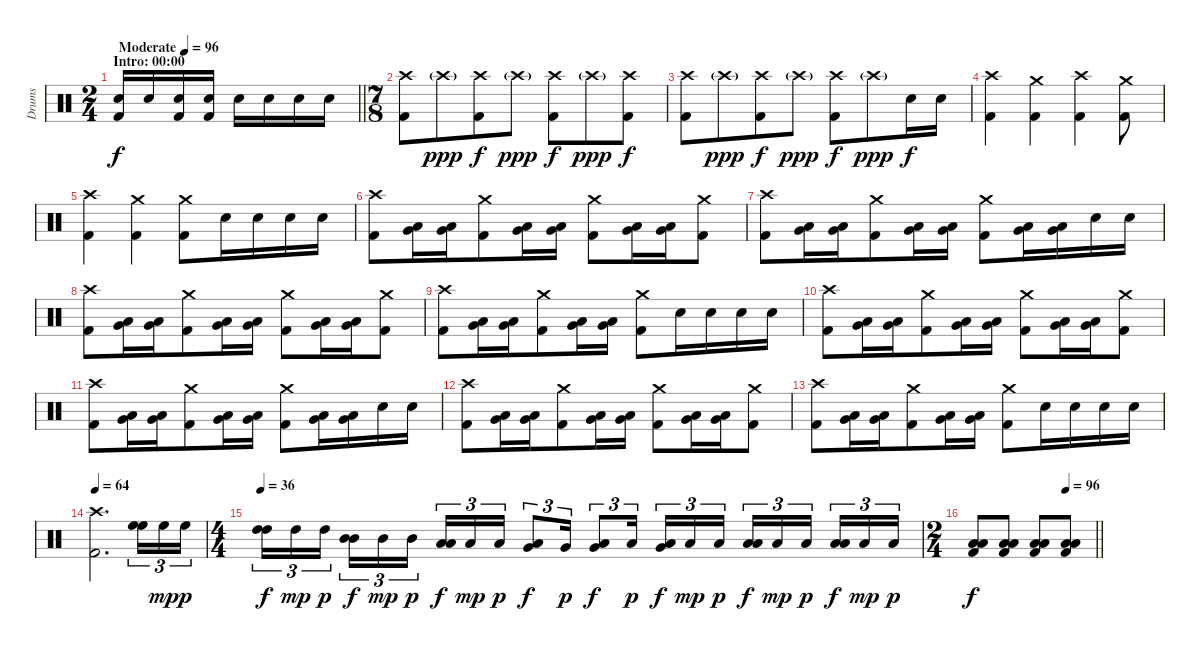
\track ("Drums" "Drums") {instrument percussion}
\staff {score}
\articulation defaults
\ts (2 4)
\section ("" "Intro: 00:00")
\tempo (96 "Moderate")
\clef neutral
\barLineRight lightlight
\ks c
("Electric Snare (hit)" "Kick (hit) 2").16{dy f} "Electric Snare (hit)".16 ("Electric Snare (hit)" "Kick (hit) 2").16 ("Electric Snare (hit)" "Kick (hit) 2").16 "Electric Snare (hit)".16 "Electric Snare (hit)".16 "Electric Snare (hit)".16 "Electric Snare (hit)".16 |
\ts (7 8)
("Crash high (hit)" "Kick (hit) 2").8 "Crash high (hit)"{g}.8{dy ppp} ("Crash high (hit)" "Kick (hit) 2").8{dy f} "Crash high (hit)"{g}.8{dy ppp} ("Crash high (hit)" "Kick (hit) 2").8{dy f} "Crash high (hit)"{g}.8{dy ppp} ("Crash high (hit)" "Kick (hit) 2").8{dy f} |
("Crash high (hit)" "Kick (hit) 2").8 "Crash high (hit)"{g}.8{dy ppp} ("Crash high (hit)" "Kick (hit) 2").8{dy f} "Crash high (hit)"{g}.8{dy ppp} ("Crash high (hit)" "Kick (hit) 2").8{dy f} "Crash high (hit)"{g}.8{dy ppp} "Electric Snare (hit)".16{dy f} "Electric Snare (hit)".16 |
("Crash high (hit)" "Kick (hit) 2").4 ("Crash medium (hit)" "Kick (hit) 2").4 ("Crash high (hit)" "Kick (hit) 2").4 ("Crash medium (hit)" "Kick (hit) 2").8 |
("Crash high (hit)" "Kick (hit) 2").4 ("Crash medium (hit)" "Kick (hit) 2").4 ("Crash medium (hit)" "Kick (hit) 2").8 "Electric Snare (hit)".16 "Electric Snare (hit)".16 "Electric Snare (hit)".16 "Electric Snare (hit)".16 |
("Crash high (hit)" "Kick (hit) 2").8 ("Low Tom (hit)" "Very Low Tom (hit)").16{bd 30} ("Low Tom (hit)" "Very Low Tom (hit)").16{bd 30} ("Crash medium (hit)" "Kick (hit) 2").8 ("Low Tom (hit)" "Very Low Tom (hit)").16{bd 30} ("Low Tom (hit)" "Very Low Tom (hit)").16{bd 30} ("Crash medium (hit)" "Kick (hit) 2").8 ("Low Tom (hit)" "Very Low Tom (hit)").16{bd 30} ("Low Tom (hit)" "Very Low Tom (hit)").16{bd 30} ("Crash medium (hit)" "Kick (hit) 2").8 |
("Crash high (hit)" "Kick (hit) 2").8 ("Low Tom (hit)" "Very Low Tom (hit)").16{bd 30} ("Low Tom (hit)" "Very Low Tom (hit)").16{bd 30} ("Crash medium (hit)" "Kick (hit) 2").8 ("Low Tom (hit)" "Very Low Tom (hit)").16{bd 30} ("Low Tom (hit)" "Very Low Tom (hit)").16{bd 30} ("Crash medium (hit)" "Kick (hit) 2").8 ("Low Tom (hit)" "Very Low Tom (hit)").16{bd 30} ("Low Tom (hit)" "Very Low Tom (hit)").16{bd 30} "Electric Snare (hit)".16 "Electric Snare (hit)".16 |
("Crash high (hit)" "Kick (hit) 2").8 ("Low Tom (hit)" "Very Low Tom (hit)").16{bd 30} ("Low Tom (hit)" "Very Low Tom (hit)").16{bd 30} ("Crash medium (hit)" "Kick (hit) 2").8 ("Low Tom (hit)" "Very Low Tom (hit)").16{bd 30} ("Low Tom (hit)" "Very Low Tom (hit)").16{bd 30} ("Crash medium (hit)" "Kick (hit) 2").8 ("Low Tom (hit)" "Very Low Tom (hit)").16{bd 30} ("Low Tom (hit)" "Very Low Tom (hit)").16{bd 30} ("Crash medium (hit)" "Kick (hit) 2").8 |
("Crash high (hit)" "Kick (hit) 2").8 ("Low Tom (hit)" "Very Low Tom (hit)").16{bd 30} ("Low Tom (hit)" "Very Low Tom (hit)").16{bd 30} ("Crash medium (hit)" "Kick (hit) 2").8 ("Low Tom (hit)" "Very Low Tom (hit)").16{bd 30} ("Low Tom (hit)" "Very Low Tom (hit)").16{bd 30} ("Crash medium (hit)" "Kick (hit) 2").8 "Electric Snare (hit)".16 "Electric Snare (hit)".16 "Electric Snare (hit)".16 "Electric Snare (hit)".16 |
("Crash high (hit)" "Kick (hit) 2").8 ("Low Tom (hit)" "Very Low Tom (hit)").16{bd 30} ("Low Tom (hit)" "Very Low Tom (hit)").16{bd 30} ("Crash medium (hit)" "Kick (hit) 2").8 ("Low Tom (hit)" "Very Low Tom (hit)").16{bd 30} ("Low Tom (hit)" "Very Low Tom (hit)").16{bd 30} ("Crash medium (hit)" "Kick (hit) 2").8 ("Low Tom (hit)" "Very Low Tom (hit)").16{bd 30} ("Low Tom (hit)" "Very Low Tom (hit)").16{bd 30} ("Crash medium (hit)" "Kick (hit) 2").8 |
("Crash high (hit)" "Kick (hit) 2").8 ("Low Tom (hit)" "Very Low Tom (hit)").16{bd 30} ("Low Tom (hit)" "Very Low Tom (hit)").16{bd 30} ("Crash medium (hit)" "Kick (hit) 2").8 ("Low Tom (hit)" "Very Low Tom (hit)").16{bd 30} ("Low Tom (hit)" "Very Low Tom (hit)").16{bd 30} ("Crash medium (hit)" "Kick (hit) 2").8 ("Low Tom (hit)" "Very Low Tom (hit)").16{bd 30} ("Low Tom (hit)" "Very Low Tom (hit)").16{bd 30} "Electric Snare (hit)".16 "Electric Snare (hit)".16 |
("Crash high (hit)" "Kick (hit) 2").8 ("Low Tom (hit)" "Very Low Tom (hit)").16{bd 30} ("Low Tom (hit)" "Very Low Tom (hit)").16{bd 30} ("Crash medium (hit)" "Kick (hit) 2").8 ("Low Tom (hit)" "Very Low Tom (hit)").16{bd 30} ("Low Tom (hit)" "Very Low Tom (hit)").16{bd 30} ("Crash medium (hit)" "Kick (hit) 2").8 ("Low Tom (hit)" "Very Low Tom (hit)").16{bd 30} ("Low Tom (hit)" "Very Low Tom (hit)").16{bd 30} ("Crash medium (hit)" "Kick (hit) 2").8 |
("Crash high (hit)" "Kick (hit) 2").8 ("Low Tom (hit)" "Very Low Tom (hit)").16{bd 30} ("Low Tom (hit)" "Very Low Tom (hit)").16{bd 30} ("Crash medium (hit)" "Kick (hit) 2").8 ("Low Tom (hit)" "Very Low Tom (hit)").16{bd 30} ("Low Tom (hit)" "Very Low Tom (hit)").16{bd 30} ("Crash medium (hit)" "Kick (hit) 2").8 "Electric Snare (hit)".16 "Electric Snare (hit)".16 "Electric Snare (hit)".16 "Electric Snare (hit)".16 |
\tempo 64
("Crash high (hit)" "Kick (hit) 2").2{d} ("High Floor Tom (hit)" "High Floor Tom (hit)").16{tu (3 2) bd 30} "High Floor Tom (hit)".16{tu (3 2) dy mp} "High Floor Tom (hit)".16{tu (3 2) dy p} |
\ts (4 4)
\tempo 36
("High Tom (hit)" "High Tom (hit)").16{tu (3 2) bd 30 dy f} "High Tom (hit)".16{tu (3 2) dy mp} "High Tom (hit)".16{tu (3 2) dy p beam splitsecondary} ("Mid Tom (hit)" "Mid Tom (hit)").16{tu (3 2) bd 30 dy f} "Mid Tom (hit)".16{tu (3 2) dy mp} "Mid Tom (hit)".16{tu (3 2) dy p} ("Low Tom (hit)" "Low Tom (hit)").16{tu (3 2) bd 30 dy f} "Low Tom (hit)".16{tu (3 2) dy mp} "Low Tom (hit)".16{tu (3 2) dy p} ("Low Tom (hit)" "Very Low Tom (hit)").8{tu (3 2) bd 30 dy f} "Very Low Tom (hit)".16{tu (3 2) dy p} ("Very Low Tom (hit)" "Low Floor Tom (hit)").8{tu (3 2) bd 30 dy f} "Low Floor Tom (hit)".16{tu (3 2) dy p beam splitsecondary} ("Very Low Tom (hit)" "Low Floor Tom (hit)").16{tu (3 2) bd 30 dy f} "Low Floor Tom (hit)".16{tu (3 2) dy mp} "Low Floor Tom (hit)".16{tu (3 2) dy p} ("Low Floor Tom (hit)" "Low Floor Tom (hit)").16{tu (3 2) bd 30 dy f} "Low Floor Tom (hit)".16{tu (3 2) dy mp} "Low Floor Tom (hit)".16{tu (3 2) dy p beam splitsecondary} ("Low Floor Tom (hit)" "Low Floor Tom (hit)").16{tu (3 2) bd 30 dy f} "Low Floor Tom (hit)".16{tu (3 2) dy mp} "Low Floor Tom (hit)".16{tu (3 2) dy p} |
\ts (2 4)
\tempo (96 0.75)
\barLineRight lightlight
("Low Floor Tom (hit)" "Low Floor Tom (hit)" "Kick (hit) 2").8{bd 30 dy f} ("Low Floor Tom (hit)" "Low Floor Tom (hit)" "Kick (hit) 2").8 ("Low Floor Tom (hit)" "Low Floor Tom (hit)" "Kick (hit) 2").8 ("Low Floor Tom (hit)" "Low Floor Tom (hit)" "Kick (hit) 2").8
